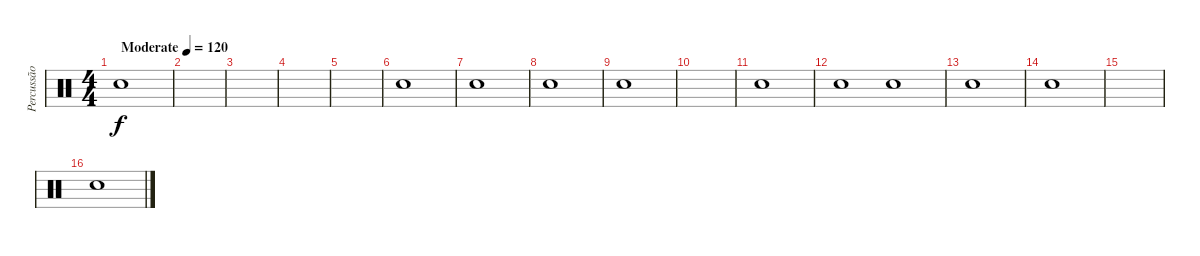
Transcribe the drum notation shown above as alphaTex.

\track ("Percussão" "Percussão") {instrument percussion}
\staff {score}
\articulation defaults
\ts (4 4)
\tempo (120 "Moderate")
\clef neutral
\ks c "Snare (hit)".1{dy f}
|
|
|
|
|
"Snare (hit)".1 |
"Snare (hit)".1 |
"Snare (hit)".1 |
"Snare (hit)".1 |
|
"Snare (hit)".1 |
"Snare (hit)".1 "Snare (hit)".1 |
"Snare (hit)".1 |
"Snare (hit)".1 |
|
"Snare (hit)".1
